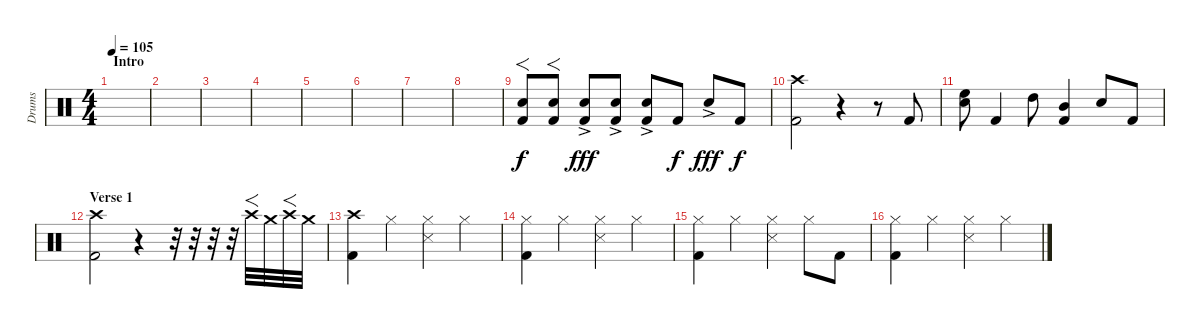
\track ("Drums" "Drums") {instrument percussion}
\staff {score}
\articulation defaults
\ts (4 4)
\section ("" "Intro")
\tempo 105
\clef neutral
\ks c
|
|
|
|
|
|
|
|
("Snare (hit) 2" "Kick (hit) 2").8{f} ("Snare (hit) 2" "Kick (hit) 2").8{f} ("Snare (hit) 2"{ac} "Kick (hit) 2").8{dy fff} ("Snare (hit) 2"{ac} "Kick (hit) 2").8 ("Snare (hit) 2"{ac} "Kick (hit) 2").8 "Kick (hit) 2".8{dy f} "Snare (hit) 2"{ac}.8{dy fff} "Kick (hit) 2".8{dy f} |
("Crash high (hit)" "Kick (hit) 2").2 r.4 r.8 "Kick (hit) 2".8 |
("High Floor Tom (hit)" "Snare (hit) 2").8 "Kick (hit) 2".4 "High Tom (hit)".8 ("Mid Tom (hit)" "Kick (hit) 2").4 "Snare (hit) 2".8 "Kick (hit) 2".8 |
\section ("" "Verse 1")
("Crash high (hit)" "Kick (hit) 2").2 r.4 r.32 r.32 r.32 r.32 "Crash high (hit)".32{f} "Crash medium (hit)".32 "Crash high (hit)".32{f} "Crash medium (hit)".32 |
("Crash high (hit)" "Kick (hit) 2").4 "Hi-Hat (closed)".4 ("Hi-Hat (closed)" "Snare (side stick) 3").4 "Hi-Hat (closed)".4 |
("Hi-Hat (closed)" "Kick (hit) 2").4 "Hi-Hat (closed)".4 ("Hi-Hat (closed)" "Snare (side stick) 3").4 "Hi-Hat (closed)".4 |
("Hi-Hat (closed)" "Kick (hit) 2").4 "Hi-Hat (closed)".4 ("Hi-Hat (closed)" "Snare (side stick) 3").4 "Hi-Hat (closed)".8 "Kick (hit) 2".8 |
("Hi-Hat (closed)" "Kick (hit) 2").4 "Hi-Hat (closed)".4 ("Hi-Hat (closed)" "Snare (side stick) 3").4 "Hi-Hat (closed)".4
